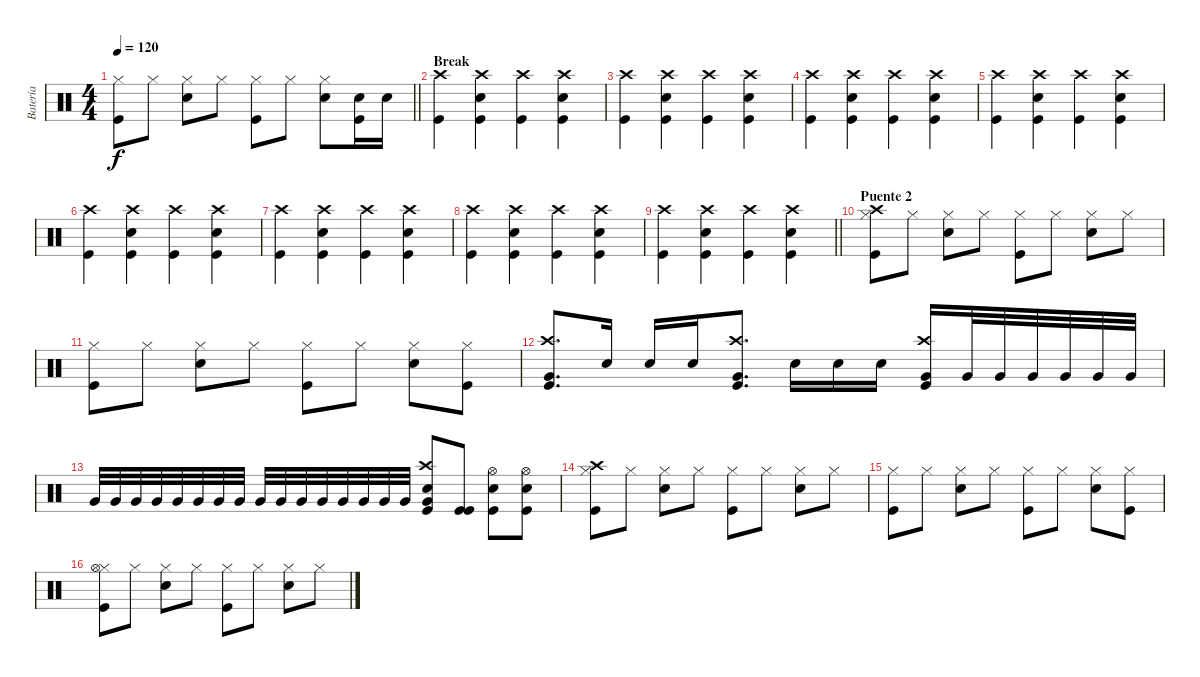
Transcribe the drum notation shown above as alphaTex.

\track ("Batería" "Batería") {instrument percussion}
\staff {score}
\articulation defaults
\ts (4 4)
\tempo 120
\clef neutral
\barLineRight lightlight
\ks c
("Kick (hit)" "Hi-Hat (closed)").8{dy f} "Hi-Hat (closed)".8 ("Electric Snare (hit)" "Hi-Hat (closed)").8 "Hi-Hat (closed)".8 ("Kick (hit)" "Hi-Hat (closed)").8 "Hi-Hat (closed)".8 ("Electric Snare (hit)" "Hi-Hat (closed)").8 ("Kick (hit)" "Electric Snare (hit)").16 "Electric Snare (hit)".16 |
\section ("" "Break")
("Kick (hit)" "Crash high (hit)").4 ("Kick (hit)" "Crash high (hit)" "Electric Snare (hit)").4 ("Kick (hit)" "Crash high (hit)").4 ("Kick (hit)" "Crash high (hit)" "Electric Snare (hit)").4 |
("Kick (hit)" "Crash high (hit)").4 ("Kick (hit)" "Crash high (hit)" "Electric Snare (hit)").4 ("Kick (hit)" "Crash high (hit)").4 ("Kick (hit)" "Crash high (hit)" "Electric Snare (hit)").4 |
("Kick (hit)" "Crash high (hit)").4 ("Kick (hit)" "Crash high (hit)" "Electric Snare (hit)").4 ("Kick (hit)" "Crash high (hit)").4 ("Kick (hit)" "Crash high (hit)" "Electric Snare (hit)").4 |
("Kick (hit)" "Crash high (hit)").4 ("Kick (hit)" "Crash high (hit)" "Electric Snare (hit)").4 ("Kick (hit)" "Crash high (hit)").4 ("Kick (hit)" "Crash high (hit)" "Electric Snare (hit)").4 |
("Kick (hit)" "Crash high (hit)").4 ("Kick (hit)" "Crash high (hit)" "Electric Snare (hit)").4 ("Kick (hit)" "Crash high (hit)").4 ("Kick (hit)" "Crash high (hit)" "Electric Snare (hit)").4 |
("Kick (hit)" "Crash high (hit)").4 ("Kick (hit)" "Crash high (hit)" "Electric Snare (hit)").4 ("Kick (hit)" "Crash high (hit)").4 ("Kick (hit)" "Crash high (hit)" "Electric Snare (hit)").4 |
("Kick (hit)" "Crash high (hit)").4 ("Kick (hit)" "Crash high (hit)" "Electric Snare (hit)").4 ("Kick (hit)" "Crash high (hit)").4 ("Kick (hit)" "Crash high (hit)" "Electric Snare (hit)").4 |
\barLineRight lightlight
("Kick (hit)" "Crash high (hit)").4 ("Kick (hit)" "Crash high (hit)" "Electric Snare (hit)").4 ("Kick (hit)" "Crash high (hit)").4 ("Kick (hit)" "Crash high (hit)" "Electric Snare (hit)").4 |
\section ("" "Puente 2")
("Kick (hit)" "Hi-Hat (closed)" "Crash high (hit)").8 "Hi-Hat (closed)".8 ("Electric Snare (hit)" "Hi-Hat (closed)").8 "Hi-Hat (closed)".8 ("Kick (hit)" "Hi-Hat (closed)").8 "Hi-Hat (closed)".8 ("Electric Snare (hit)" "Hi-Hat (closed)").8 "Hi-Hat (closed)".8 |
("Kick (hit)" "Hi-Hat (closed)").8 "Hi-Hat (closed)".8 ("Electric Snare (hit)" "Hi-Hat (closed)").8 "Hi-Hat (closed)".8 ("Kick (hit)" "Hi-Hat (closed)").8 "Hi-Hat (closed)".8 ("Electric Snare (hit)" "Hi-Hat (closed)").8 ("Kick (hit)" "Hi-Hat (closed)").8 |
("Crash high (hit)" "Kick (hit)" "Very Low Tom (hit)").8{d} "Electric Snare (hit)".16 "Electric Snare (hit)".16 "Electric Snare (hit)".16 ("Crash high (hit)" "Kick (hit)" "Very Low Tom (hit)").8{d} "Electric Snare (hit)".16 "Electric Snare (hit)".16 "Electric Snare (hit)".16 ("Crash high (hit)" "Kick (hit)" "Very Low Tom (hit)").16 "Very Low Tom (hit)".32 "Very Low Tom (hit)".32 "Very Low Tom (hit)".32 "Very Low Tom (hit)".32 "Very Low Tom (hit)".32 "Very Low Tom (hit)".32 |
"Very Low Tom (hit)".32 "Very Low Tom (hit)".32 "Very Low Tom (hit)".32 "Very Low Tom (hit)".32 "Very Low Tom (hit)".32 "Very Low Tom (hit)".32 "Very Low Tom (hit)".32 "Very Low Tom (hit)".32 "Very Low Tom (hit)".32 "Very Low Tom (hit)".32 "Very Low Tom (hit)".32 "Very Low Tom (hit)".32 "Very Low Tom (hit)".32 "Very Low Tom (hit)".32 "Very Low Tom (hit)".32 "Very Low Tom (hit)".32 ("Kick (hit)" "Very Low Tom (hit)" "Crash high (hit)" "Electric Snare (hit)").8 ("Kick (hit)" "Kick (hit)").8 ("Kick (hit)" "Electric Snare (hit)" "Hi-Hat (open)").8 ("Kick (hit)" "Electric Snare (hit)" "Hi-Hat (open)").8 |
("Kick (hit)" "Hi-Hat (closed)" "Crash high (hit)").8 "Hi-Hat (closed)".8 ("Electric Snare (hit)" "Hi-Hat (closed)").8 "Hi-Hat (closed)".8 ("Kick (hit)" "Hi-Hat (closed)").8 "Hi-Hat (closed)".8 ("Electric Snare (hit)" "Hi-Hat (closed)").8 "Hi-Hat (closed)".8 |
("Kick (hit)" "Hi-Hat (closed)").8 "Hi-Hat (closed)".8 ("Electric Snare (hit)" "Hi-Hat (closed)").8 "Hi-Hat (closed)".8 ("Kick (hit)" "Hi-Hat (closed)").8 "Hi-Hat (closed)".8 ("Electric Snare (hit)" "Hi-Hat (closed)").8 ("Kick (hit)" "Hi-Hat (closed)").8 |
("Kick (hit)" "Hi-Hat (closed)" "Hi-Hat (open)").8 "Hi-Hat (closed)".8 ("Electric Snare (hit)" "Hi-Hat (closed)").8 "Hi-Hat (closed)".8 ("Kick (hit)" "Hi-Hat (closed)").8 "Hi-Hat (closed)".8 ("Electric Snare (hit)" "Hi-Hat (closed)").8 "Hi-Hat (closed)".8
